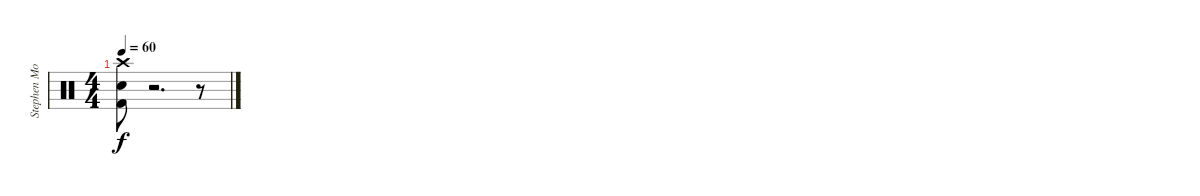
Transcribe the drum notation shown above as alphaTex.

\track ("Stephen Morris (Drums)" "Stephen Mo") {instrument percussion}
\staff {score}
\articulation defaults
\ts (4 4)
\tempo 60
\clef neutral
\ks c
("Crash high (hit)" "Snare (hit) 2" "Kick (hit) 2").8{dy f} r.2{d} r.8
